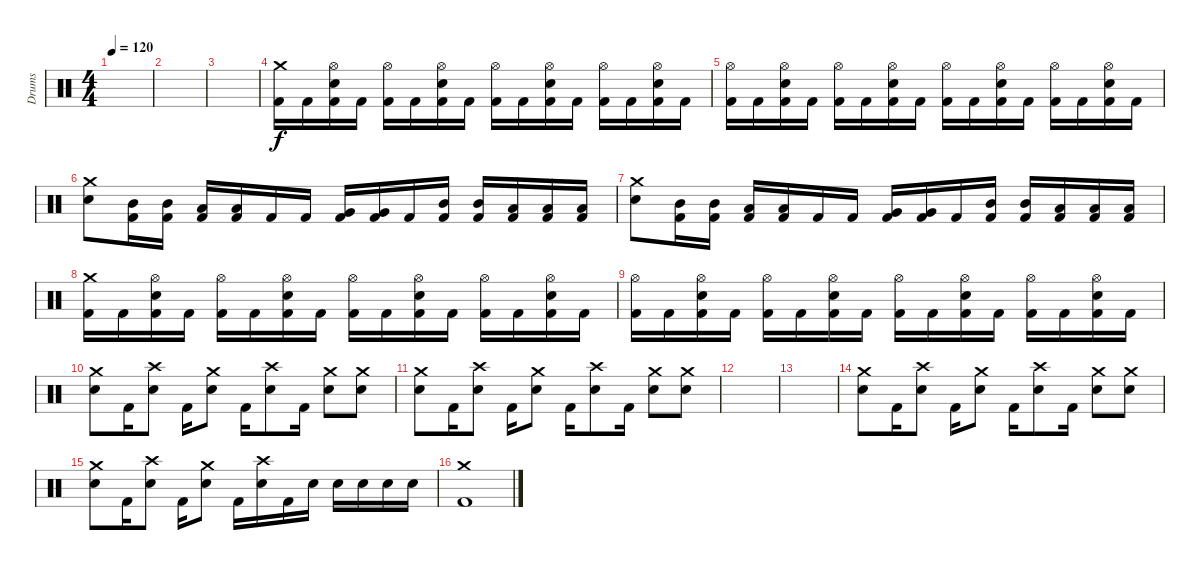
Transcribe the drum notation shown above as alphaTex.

\track ("Drums" "Drums") {instrument percussion}
\staff {score}
\articulation defaults
\ts (4 4)
\tempo 120
\clef neutral
\ks c
|
|
|
("Crash medium (hit)" "Kick (hit) 2").16 "Kick (hit) 2".16 ("Hi-Hat (open)" "Electric Snare (hit)" "Kick (hit) 2").16 "Kick (hit) 2".16 ("Hi-Hat (open)" "Kick (hit) 2").16 "Kick (hit) 2".16 ("Hi-Hat (open)" "Electric Snare (hit)" "Kick (hit) 2").16 "Kick (hit) 2".16 ("Hi-Hat (open)" "Kick (hit) 2").16 "Kick (hit) 2".16 ("Hi-Hat (open)" "Electric Snare (hit)" "Kick (hit) 2").16 "Kick (hit) 2".16 ("Hi-Hat (open)" "Kick (hit) 2").16 "Kick (hit) 2".16 ("Hi-Hat (open)" "Electric Snare (hit)" "Kick (hit) 2").16 "Kick (hit) 2".16 |
("Hi-Hat (open)" "Kick (hit) 2").16 "Kick (hit) 2".16 ("Hi-Hat (open)" "Electric Snare (hit)" "Kick (hit) 2").16 "Kick (hit) 2".16 ("Hi-Hat (open)" "Kick (hit) 2").16 "Kick (hit) 2".16 ("Hi-Hat (open)" "Electric Snare (hit)" "Kick (hit) 2").16 "Kick (hit) 2".16 ("Hi-Hat (open)" "Kick (hit) 2").16 "Kick (hit) 2".16 ("Hi-Hat (open)" "Electric Snare (hit)" "Kick (hit) 2").16 "Kick (hit) 2".16 ("Hi-Hat (open)" "Kick (hit) 2").16 "Kick (hit) 2".16 ("Hi-Hat (open)" "Electric Snare (hit)" "Kick (hit) 2").16 "Kick (hit) 2".16 |
("Crash medium (hit)" "Electric Snare (hit)").8 ("Mid Tom (hit)" "Kick (hit) 2").16 ("Mid Tom (hit)" "Kick (hit) 2").16 ("Low Tom (hit)" "Kick (hit) 2").16 ("Low Tom (hit)" "Kick (hit) 2").16 "Kick (hit) 2".16 "Kick (hit) 2".16 ("Very Low Tom (hit)" "Kick (hit) 2").16 ("Very Low Tom (hit)" "Kick (hit) 2").16 "Kick (hit) 2".16 ("Mid Tom (hit)" "Kick (hit) 2").16 ("Mid Tom (hit)" "Kick (hit) 2").16 ("Low Floor Tom (hit)" "Kick (hit) 2").16 ("Low Floor Tom (hit)" "Kick (hit) 2").16 ("Low Floor Tom (hit)" "Kick (hit) 2").16 |
("Crash medium (hit)" "Electric Snare (hit)").8 ("Mid Tom (hit)" "Kick (hit) 2").16 ("Mid Tom (hit)" "Kick (hit) 2").16 ("Low Tom (hit)" "Kick (hit) 2").16 ("Low Tom (hit)" "Kick (hit) 2").16 "Kick (hit) 2".16 "Kick (hit) 2".16 ("Very Low Tom (hit)" "Kick (hit) 2").16 ("Very Low Tom (hit)" "Kick (hit) 2").16 "Kick (hit) 2".16 ("Mid Tom (hit)" "Kick (hit) 2").16 ("Mid Tom (hit)" "Kick (hit) 2").16 ("Low Floor Tom (hit)" "Kick (hit) 2").16 ("Low Floor Tom (hit)" "Kick (hit) 2").16 ("Low Floor Tom (hit)" "Kick (hit) 2").16 |
("Crash medium (hit)" "Kick (hit) 2").16 "Kick (hit) 2".16 ("Hi-Hat (open)" "Electric Snare (hit)" "Kick (hit) 2").16 "Kick (hit) 2".16 ("Hi-Hat (open)" "Kick (hit) 2").16 "Kick (hit) 2".16 ("Hi-Hat (open)" "Electric Snare (hit)" "Kick (hit) 2").16 "Kick (hit) 2".16 ("Hi-Hat (open)" "Kick (hit) 2").16 "Kick (hit) 2".16 ("Hi-Hat (open)" "Electric Snare (hit)" "Kick (hit) 2").16 "Kick (hit) 2".16 ("Hi-Hat (open)" "Kick (hit) 2").16 "Kick (hit) 2".16 ("Hi-Hat (open)" "Electric Snare (hit)" "Kick (hit) 2").16 "Kick (hit) 2".16 |
("Hi-Hat (open)" "Kick (hit) 2").16 "Kick (hit) 2".16 ("Hi-Hat (open)" "Electric Snare (hit)" "Kick (hit) 2").16 "Kick (hit) 2".16 ("Hi-Hat (open)" "Kick (hit) 2").16 "Kick (hit) 2".16 ("Hi-Hat (open)" "Electric Snare (hit)" "Kick (hit) 2").16 "Kick (hit) 2".16 ("Hi-Hat (open)" "Kick (hit) 2").16 "Kick (hit) 2".16 ("Hi-Hat (open)" "Electric Snare (hit)" "Kick (hit) 2").16 "Kick (hit) 2".16 ("Hi-Hat (open)" "Kick (hit) 2").16 "Kick (hit) 2".16 ("Hi-Hat (open)" "Electric Snare (hit)" "Kick (hit) 2").16 "Kick (hit) 2".16 |
("Crash medium (hit)" "Electric Snare (hit)").8 "Kick (hit) 2".16 ("Crash high (hit)" "Electric Snare (hit)").8 "Kick (hit) 2".16 ("Crash medium (hit)" "Electric Snare (hit)").8 "Kick (hit) 2".16 ("Crash high (hit)" "Electric Snare (hit)").8 "Kick (hit) 2".16 ("Crash medium (hit)" "Electric Snare (hit)").8 ("Crash medium (hit)" "Electric Snare (hit)").8 |
("Crash medium (hit)" "Electric Snare (hit)").8 "Kick (hit) 2".16 ("Crash high (hit)" "Electric Snare (hit)").8 "Kick (hit) 2".16 ("Crash medium (hit)" "Electric Snare (hit)").8 "Kick (hit) 2".16 ("Crash high (hit)" "Electric Snare (hit)").8 "Kick (hit) 2".16 ("Crash medium (hit)" "Electric Snare (hit)").8 ("Crash medium (hit)" "Electric Snare (hit)").8 |
|
|
("Crash medium (hit)" "Electric Snare (hit)").8 "Kick (hit) 2".16 ("Crash high (hit)" "Electric Snare (hit)").8 "Kick (hit) 2".16 ("Crash medium (hit)" "Electric Snare (hit)").8 "Kick (hit) 2".16 ("Crash high (hit)" "Electric Snare (hit)").8 "Kick (hit) 2".16 ("Crash medium (hit)" "Electric Snare (hit)").8 ("Crash medium (hit)" "Electric Snare (hit)").8 |
("Crash medium (hit)" "Electric Snare (hit)").8 "Kick (hit) 2".16 ("Crash high (hit)" "Electric Snare (hit)").8 "Kick (hit) 2".16 ("Crash medium (hit)" "Electric Snare (hit)").8 "Kick (hit) 2".16 ("Crash high (hit)" "Electric Snare (hit)").16 "Kick (hit) 2".16 "Electric Snare (hit)".16 "Electric Snare (hit)".16 "Electric Snare (hit)".16 "Electric Snare (hit)".16 "Electric Snare (hit)".16 |
("Crash medium (hit)" "Kick (hit) 2").1
